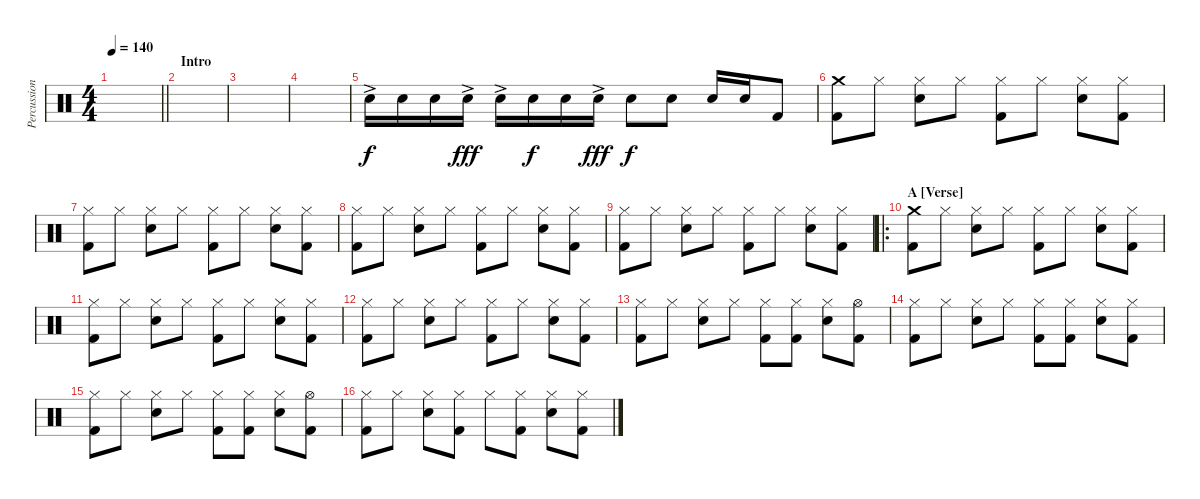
\track ("Percussion" "Percussion") {instrument percussion}
\staff {score}
\articulation defaults
\ts (4 4)
\tempo 140
\clef neutral
\barLineRight lightlight
\ks c
|
\section ("" "Intro")
|
|
|
"Snare (hit) 2"{ac}.16 "Snare (hit) 2".16{dy f} "Snare (hit) 2".16 "Snare (hit) 2"{ac}.16{dy fff} "Snare (hit) 2"{ac}.16 "Snare (hit) 2".16{dy f} "Snare (hit) 2".16 "Snare (hit) 2"{ac}.16{dy fff} "Snare (hit) 2".8{dy f} "Snare (hit) 2".8 "Snare (hit) 2".16 "Snare (hit) 2".16 "Kick (hit) 2".8 |
("Crash medium (hit)" "Kick (hit) 2").8 "Hi-Hat (closed)".8 ("Hi-Hat (closed)" "Snare (hit) 2").8 "Hi-Hat (closed)".8 ("Hi-Hat (closed)" "Kick (hit) 2").8 "Hi-Hat (closed)".8 ("Hi-Hat (closed)" "Snare (hit) 2").8 ("Hi-Hat (closed)" "Kick (hit) 2").8 |
("Hi-Hat (closed)" "Kick (hit) 2").8 "Hi-Hat (closed)".8 ("Hi-Hat (closed)" "Snare (hit) 2").8 "Hi-Hat (closed)".8 ("Hi-Hat (closed)" "Kick (hit) 2").8 "Hi-Hat (closed)".8 ("Hi-Hat (closed)" "Snare (hit) 2").8 ("Hi-Hat (closed)" "Kick (hit) 2").8 |
("Hi-Hat (closed)" "Kick (hit) 2").8 "Hi-Hat (closed)".8 ("Hi-Hat (closed)" "Snare (hit) 2").8 "Hi-Hat (closed)".8 ("Hi-Hat (closed)" "Kick (hit) 2").8 "Hi-Hat (closed)".8 ("Hi-Hat (closed)" "Snare (hit) 2").8 ("Hi-Hat (closed)" "Kick (hit) 2").8 |
("Hi-Hat (closed)" "Kick (hit) 2").8 "Hi-Hat (closed)".8 ("Hi-Hat (closed)" "Snare (hit) 2").8 "Hi-Hat (closed)".8 ("Hi-Hat (closed)" "Kick (hit) 2").8 "Hi-Hat (closed)".8 ("Hi-Hat (closed)" "Snare (hit) 2").8 ("Hi-Hat (closed)" "Kick (hit) 2").8 |
\ro
\section ("" "A [Verse]")
("Crash medium (hit)" "Kick (hit) 2").8 "Hi-Hat (closed)".8 ("Hi-Hat (closed)" "Snare (hit) 2").8 "Hi-Hat (closed)".8 ("Hi-Hat (closed)" "Kick (hit) 2").8 "Hi-Hat (closed)".8 ("Hi-Hat (closed)" "Snare (hit) 2").8 ("Hi-Hat (closed)" "Kick (hit) 2").8 |
("Hi-Hat (closed)" "Kick (hit) 2").8 "Hi-Hat (closed)".8 ("Hi-Hat (closed)" "Snare (hit) 2").8 "Hi-Hat (closed)".8 ("Hi-Hat (closed)" "Kick (hit) 2").8 "Hi-Hat (closed)".8 ("Hi-Hat (closed)" "Snare (hit) 2").8 ("Hi-Hat (closed)" "Kick (hit) 2").8 |
("Hi-Hat (closed)" "Kick (hit) 2").8 "Hi-Hat (closed)".8 ("Hi-Hat (closed)" "Snare (hit) 2").8 "Hi-Hat (closed)".8 ("Hi-Hat (closed)" "Kick (hit) 2").8 "Hi-Hat (closed)".8 ("Hi-Hat (closed)" "Snare (hit) 2").8 ("Hi-Hat (closed)" "Kick (hit) 2").8 |
("Hi-Hat (closed)" "Kick (hit) 2").8 "Hi-Hat (closed)".8 ("Hi-Hat (closed)" "Snare (hit) 2").8 "Hi-Hat (closed)".8 ("Hi-Hat (closed)" "Kick (hit) 2").8 ("Hi-Hat (closed)" "Kick (hit) 2").8 ("Hi-Hat (closed)" "Snare (hit) 2").8 ("Hi-Hat (open)" "Kick (hit) 2").8 |
("Hi-Hat (closed)" "Kick (hit) 2").8 "Hi-Hat (closed)".8 ("Hi-Hat (closed)" "Snare (hit) 2").8 "Hi-Hat (closed)".8 ("Hi-Hat (closed)" "Kick (hit) 2").8 ("Hi-Hat (closed)" "Kick (hit) 2").8 ("Hi-Hat (closed)" "Snare (hit) 2").8 ("Hi-Hat (closed)" "Kick (hit) 2").8 |
("Hi-Hat (closed)" "Kick (hit) 2").8 "Hi-Hat (closed)".8 ("Hi-Hat (closed)" "Snare (hit) 2").8 "Hi-Hat (closed)".8 ("Hi-Hat (closed)" "Kick (hit) 2").8 ("Hi-Hat (closed)" "Kick (hit) 2").8 ("Hi-Hat (closed)" "Snare (hit) 2").8 ("Hi-Hat (open)" "Kick (hit) 2").8 |
("Hi-Hat (closed)" "Kick (hit) 2").8 "Hi-Hat (closed)".8 ("Hi-Hat (closed)" "Snare (hit) 2").8 ("Hi-Hat (closed)" "Kick (hit) 2").8 "Hi-Hat (closed)".8 ("Hi-Hat (closed)" "Kick (hit) 2").8 ("Hi-Hat (closed)" "Snare (hit) 2").8 ("Hi-Hat (closed)" "Kick (hit) 2").8
